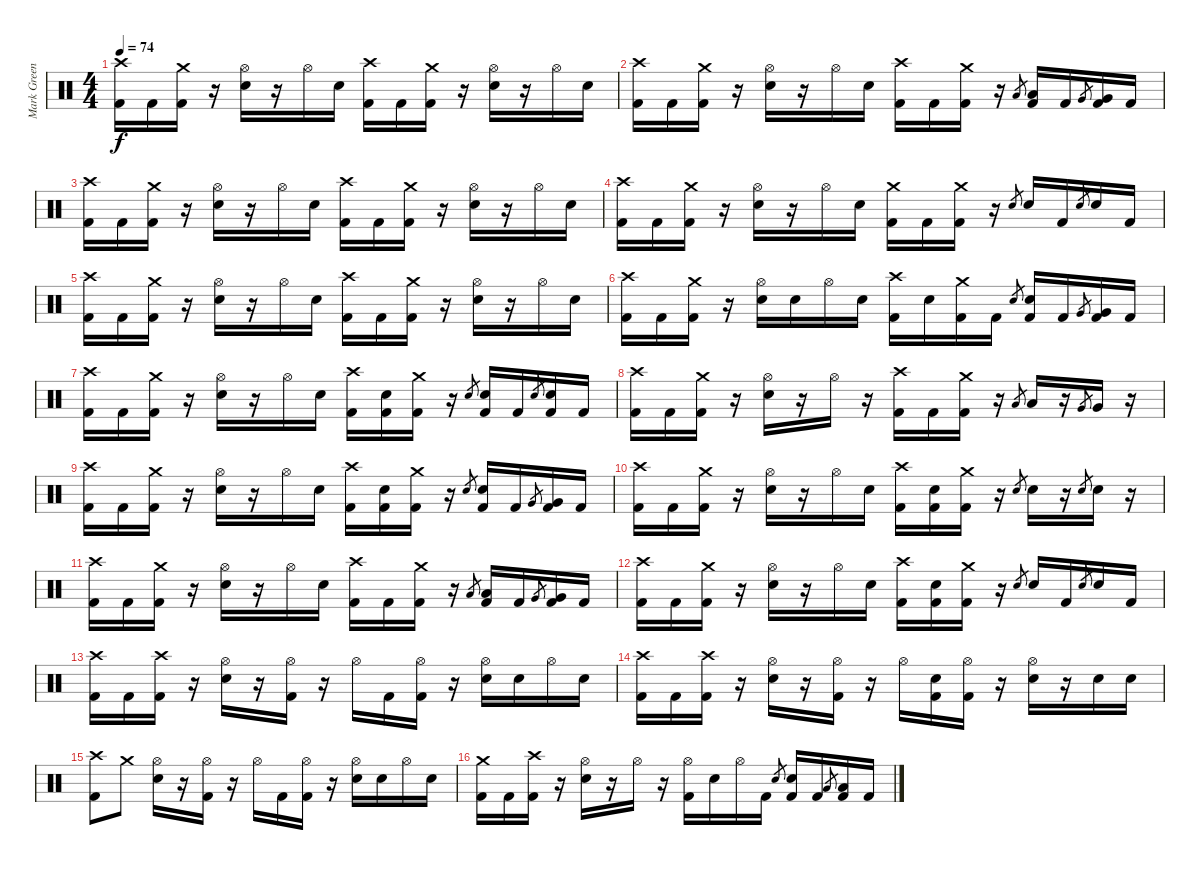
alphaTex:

\track ("Mark Greening" "Mark Green") {instrument percussion}
\staff {score}
\articulation defaults
\ts (4 4)
\tempo 74
\clef neutral
\ks c
("Crash high (hit)" "Kick (hit) 2").16{dy f} "Kick (hit) 2".16 ("Crash medium (hit)" "Kick (hit) 2").16 r.16 ("Hi-Hat (open)" "Snare (hit) 2").16 r.16 "Hi-Hat (open)".16 "Snare (hit) 2".16 ("Crash high (hit)" "Kick (hit) 2").16 "Kick (hit) 2".16 ("Crash medium (hit)" "Kick (hit) 2").16 r.16 ("Hi-Hat (open)" "Snare (hit) 2").16 r.16 "Hi-Hat (open)".16 "Snare (hit) 2".16 |
("Crash high (hit)" "Kick (hit) 2").16 "Kick (hit) 2".16 ("Crash medium (hit)" "Kick (hit) 2").16 r.16 ("Hi-Hat (open)" "Snare (hit) 2").16 r.16 "Hi-Hat (open)".16 "Snare (hit) 2".16 ("Crash high (hit)" "Kick (hit) 2").16 "Kick (hit) 2".16 ("Crash medium (hit)" "Kick (hit) 2").16 r.16 "Low Tom (hit)".8{gr} ("Low Tom (hit)" "Kick (hit) 2").16 "Kick (hit) 2".16 "Very Low Tom (hit)".8{gr} ("Very Low Tom (hit)" "Kick (hit) 2").16 "Kick (hit) 2".16 |
("Crash high (hit)" "Kick (hit) 2").16 "Kick (hit) 2".16 ("Crash medium (hit)" "Kick (hit) 2").16 r.16 ("Hi-Hat (open)" "Snare (hit) 2").16 r.16 "Hi-Hat (open)".16 "Snare (hit) 2".16 ("Crash high (hit)" "Kick (hit) 2").16 "Kick (hit) 2".16 ("Crash medium (hit)" "Kick (hit) 2").16 r.16 ("Hi-Hat (open)" "Snare (hit) 2").16 r.16 "Hi-Hat (open)".16 "Snare (hit) 2".16 |
("Crash high (hit)" "Kick (hit) 2").16 "Kick (hit) 2".16 ("Crash medium (hit)" "Kick (hit) 2").16 r.16 ("Hi-Hat (open)" "Snare (hit) 2").16 r.16 "Hi-Hat (open)".16 "Snare (hit) 2".16 ("Crash medium (hit)" "Kick (hit) 2").16 "Kick (hit) 2".16 ("Crash medium (hit)" "Kick (hit) 2").16 r.16 "Snare (hit) 2".8{gr} "Snare (hit) 2".16 "Kick (hit) 2".16 "Snare (hit) 2".8{gr} "Snare (hit) 2".16 "Kick (hit) 2".16 |
("Crash high (hit)" "Kick (hit) 2").16 "Kick (hit) 2".16 ("Crash medium (hit)" "Kick (hit) 2").16 r.16 ("Hi-Hat (open)" "Snare (hit) 2").16 r.16 "Hi-Hat (open)".16 "Snare (hit) 2".16 ("Crash high (hit)" "Kick (hit) 2").16 "Kick (hit) 2".16 ("Crash medium (hit)" "Kick (hit) 2").16 r.16 ("Hi-Hat (open)" "Snare (hit) 2").16 r.16 "Hi-Hat (open)".16 "Snare (hit) 2".16 |
("Crash high (hit)" "Kick (hit) 2").16 "Kick (hit) 2".16 ("Crash medium (hit)" "Kick (hit) 2").16 r.16 ("Hi-Hat (open)" "Snare (hit) 2").16 "Snare (hit) 2".16 "Hi-Hat (open)".16 "Snare (hit) 2".16 ("Crash high (hit)" "Kick (hit) 2").16 "Snare (hit) 2".16 ("Crash medium (hit)" "Kick (hit) 2").16 "Kick (hit) 2".16 "Snare (hit) 2".8{gr} ("Snare (hit) 2" "Kick (hit) 2").16 "Kick (hit) 2".16 "Very Low Tom (hit)".8{gr} ("Very Low Tom (hit)" "Kick (hit) 2").16 "Kick (hit) 2".16 |
("Crash high (hit)" "Kick (hit) 2").16 "Kick (hit) 2".16 ("Crash medium (hit)" "Kick (hit) 2").16 r.16 ("Hi-Hat (open)" "Snare (hit) 2").16 r.16 "Hi-Hat (open)".16 "Snare (hit) 2".16 ("Crash high (hit)" "Kick (hit) 2").16 ("Snare (hit) 2" "Kick (hit) 2").16 ("Crash medium (hit)" "Kick (hit) 2").16 r.16 "Snare (hit) 2".8{gr} ("Snare (hit) 2" "Kick (hit) 2").16 "Kick (hit) 2".16 "Snare (hit) 2".8{gr} ("Snare (hit) 2" "Kick (hit) 2").16 "Kick (hit) 2".16 |
("Crash high (hit)" "Kick (hit) 2").16 "Kick (hit) 2".16 ("Crash medium (hit)" "Kick (hit) 2").16 r.16 ("Hi-Hat (open)" "Snare (hit) 2").16 r.16 "Hi-Hat (open)".16 r.16 ("Crash high (hit)" "Kick (hit) 2").16 "Kick (hit) 2".16 ("Crash medium (hit)" "Kick (hit) 2").16 r.16 "Low Tom (hit)".8{gr} "Low Tom (hit)".16 r.16 "Very Low Tom (hit)".8{gr} "Very Low Tom (hit)".16 r.16 |
("Crash high (hit)" "Kick (hit) 2").16 "Kick (hit) 2".16 ("Crash medium (hit)" "Kick (hit) 2").16 r.16 ("Hi-Hat (open)" "Snare (hit) 2").16 r.16 "Hi-Hat (open)".16 "Snare (hit) 2".16 ("Crash high (hit)" "Kick (hit) 2").16 ("Snare (hit) 2" "Kick (hit) 2").16 ("Crash medium (hit)" "Kick (hit) 2").16 r.16 "Snare (hit) 2".8{gr} ("Snare (hit) 2" "Kick (hit) 2").16 "Kick (hit) 2".16 "Very Low Tom (hit)".8{gr} ("Very Low Tom (hit)" "Kick (hit) 2").16 "Kick (hit) 2".16 |
("Crash high (hit)" "Kick (hit) 2").16 "Kick (hit) 2".16 ("Crash medium (hit)" "Kick (hit) 2").16 r.16 ("Hi-Hat (open)" "Snare (hit) 2").16 r.16 "Hi-Hat (open)".16 "Snare (hit) 2".16 ("Crash high (hit)" "Kick (hit) 2").16 ("Snare (hit) 2" "Kick (hit) 2").16 ("Crash medium (hit)" "Kick (hit) 2").16 r.16 "Snare (hit) 2".8{gr} "Snare (hit) 2".16 r.16 "Snare (hit) 2".8{gr} "Snare (hit) 2".16 r.16 |
("Crash high (hit)" "Kick (hit) 2").16 "Kick (hit) 2".16 ("Crash medium (hit)" "Kick (hit) 2").16 r.16 ("Hi-Hat (open)" "Snare (hit) 2").16 r.16 "Hi-Hat (open)".16 "Snare (hit) 2".16 ("Crash high (hit)" "Kick (hit) 2").16 "Kick (hit) 2".16 ("Crash medium (hit)" "Kick (hit) 2").16 r.16 "Low Tom (hit)".8{gr} ("Low Tom (hit)" "Kick (hit) 2").16 "Kick (hit) 2".16 "Very Low Tom (hit)".8{gr} ("Very Low Tom (hit)" "Kick (hit) 2").16 "Kick (hit) 2".16 |
("Crash high (hit)" "Kick (hit) 2").16 "Kick (hit) 2".16 ("Crash medium (hit)" "Kick (hit) 2").16 r.16 ("Hi-Hat (open)" "Snare (hit) 2").16 r.16 "Hi-Hat (open)".16 "Snare (hit) 2".16 ("Crash high (hit)" "Kick (hit) 2").16 ("Snare (hit) 2" "Kick (hit) 2").16 ("Crash medium (hit)" "Kick (hit) 2").16 r.16 "Snare (hit) 2".8{gr} "Snare (hit) 2".16 "Kick (hit) 2".16 "Snare (hit) 2".8{gr} "Snare (hit) 2".16 "Kick (hit) 2".16 |
("Crash high (hit)" "Kick (hit) 2").16 "Kick (hit) 2".16 ("Crash high (hit)" "Kick (hit) 2").16 r.16 ("Hi-Hat (open)" "Snare (hit) 2").16 r.16 ("Hi-Hat (open)" "Kick (hit) 2").16 r.16 "Hi-Hat (open)".16 "Kick (hit) 2".16 ("Hi-Hat (open)" "Kick (hit) 2").16 r.16 ("Hi-Hat (open)" "Snare (hit) 2").16 "Snare (hit) 2".16 "Hi-Hat (open)".16 "Snare (hit) 2".16 |
("Crash high (hit)" "Kick (hit) 2").16 "Kick (hit) 2".16 ("Crash high (hit)" "Kick (hit) 2").16 r.16 ("Hi-Hat (open)" "Snare (hit) 2").16 r.16 ("Hi-Hat (open)" "Kick (hit) 2").16 r.16 "Hi-Hat (open)".16 ("Snare (hit) 2" "Kick (hit) 2").16 ("Hi-Hat (open)" "Kick (hit) 2").16 r.16 ("Hi-Hat (open)" "Snare (hit) 2").16 r.16 "Snare (hit) 2".16 "Snare (hit) 2".16 |
("Crash high (hit)" "Kick (hit) 2").8 "Crash medium (hit)".8 ("Hi-Hat (open)" "Snare (hit) 2").16 r.16 ("Hi-Hat (open)" "Kick (hit) 2").16 r.16 "Hi-Hat (open)".16 "Kick (hit) 2".16 ("Hi-Hat (open)" "Kick (hit) 2").16 r.16 ("Hi-Hat (open)" "Snare (hit) 2").16 "Snare (hit) 2".16 "Hi-Hat (open)".16 "Snare (hit) 2".16 |
("Crash medium (hit)" "Kick (hit) 2").16 "Kick (hit) 2".16 ("Crash high (hit)" "Kick (hit) 2").16 r.16 ("Hi-Hat (open)" "Snare (hit) 2").16 r.16 "Hi-Hat (open)".16 r.16 ("Hi-Hat (open)" "Kick (hit) 2").16 "Snare (hit) 2".16 "Hi-Hat (open)".16 "Kick (hit) 2".16 "Snare (hit) 2".8{gr} ("Snare (hit) 2" "Kick (hit) 2").16 "Kick (hit) 2".16 "Low Tom (hit)".8{gr} ("Low Tom (hit)" "Kick (hit) 2").16 "Kick (hit) 2".16
